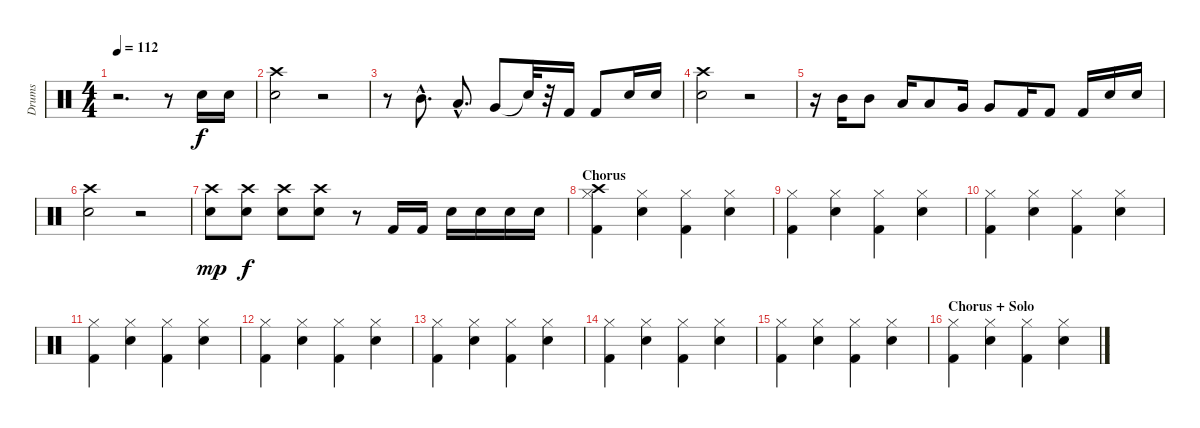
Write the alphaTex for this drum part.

\track ("Drums" "Drums") {instrument percussion}
\staff {score}
\articulation defaults
\ts (4 4)
\tempo 112
\clef neutral
\ks c
r.2{d dy f} r.8 "Electric Snare (hit)".16 "Electric Snare (hit)".16 |
("Crash high (hit)" "Electric Snare (hit)").2 r.2 |
r.8 "Mid Tom (hit)"{hac}.8{d} "Low Tom (hit)"{hac}.8{d} "Very Low Tom (hit)".8 "Snare (hit)"{t}.32 r.32 "Kick (hit) 2".16 "Kick (hit) 2".8 "Electric Snare (hit)".16 "Electric Snare (hit)".16 |
("Crash high (hit)" "Electric Snare (hit)").2 r.2 |
r.16 "Mid Tom (hit)".16 "Mid Tom (hit)".8 "Low Tom (hit)".16 "Low Tom (hit)".8 "Very Low Tom (hit)".16 "Very Low Tom (hit)".8 "Kick (hit) 2".16 "Kick (hit) 2".8 "Kick (hit) 2".16 "Electric Snare (hit)".16 "Electric Snare (hit)".16 |
("Crash high (hit)" "Electric Snare (hit)").2 r.2 |
("Electric Snare (hit)" "Crash high (hit)").8{dy mp} ("Electric Snare (hit)" "Crash high (hit)").8{dy f} ("Electric Snare (hit)" "Crash high (hit)").8 ("Electric Snare (hit)" "Crash high (hit)").8 r.8 "Kick (hit) 2".16 "Kick (hit) 2".16 "Electric Snare (hit)".16 "Electric Snare (hit)".16 "Electric Snare (hit)".16 "Electric Snare (hit)".16 |
\section ("" "Chorus")
("Kick (hit) 2" "Hi-Hat (closed)" "Crash high (hit)").4 ("Hi-Hat (closed)" "Electric Snare (hit)").4 ("Kick (hit) 2" "Hi-Hat (closed)").4 ("Hi-Hat (closed)" "Electric Snare (hit)").4 |
("Kick (hit) 2" "Hi-Hat (closed)").4 ("Hi-Hat (closed)" "Electric Snare (hit)").4 ("Kick (hit) 2" "Hi-Hat (closed)").4 ("Electric Snare (hit)" "Hi-Hat (closed)").4 |
("Kick (hit) 2" "Hi-Hat (closed)").4 ("Hi-Hat (closed)" "Electric Snare (hit)").4 ("Kick (hit) 2" "Hi-Hat (closed)").4 ("Hi-Hat (closed)" "Electric Snare (hit)").4 |
("Kick (hit) 2" "Hi-Hat (closed)").4 ("Hi-Hat (closed)" "Electric Snare (hit)").4 ("Kick (hit) 2" "Hi-Hat (closed)").4 ("Hi-Hat (closed)" "Electric Snare (hit)").4 |
("Kick (hit) 2" "Hi-Hat (closed)").4 ("Hi-Hat (closed)" "Electric Snare (hit)").4 ("Kick (hit) 2" "Hi-Hat (closed)").4 ("Hi-Hat (closed)" "Electric Snare (hit)").4 |
("Kick (hit) 2" "Hi-Hat (closed)").4 ("Hi-Hat (closed)" "Electric Snare (hit)").4 ("Kick (hit) 2" "Hi-Hat (closed)").4 ("Hi-Hat (closed)" "Electric Snare (hit)").4 |
("Kick (hit) 2" "Hi-Hat (closed)").4 ("Hi-Hat (closed)" "Electric Snare (hit)").4 ("Kick (hit) 2" "Hi-Hat (closed)").4 ("Hi-Hat (closed)" "Electric Snare (hit)").4 |
("Kick (hit) 2" "Hi-Hat (closed)").4 ("Hi-Hat (closed)" "Electric Snare (hit)").4 ("Kick (hit) 2" "Hi-Hat (closed)").4 ("Hi-Hat (closed)" "Electric Snare (hit)").4 |
\section ("" "Chorus + Solo")
("Kick (hit) 2" "Hi-Hat (closed)").4 ("Hi-Hat (closed)" "Electric Snare (hit)").4 ("Kick (hit) 2" "Hi-Hat (closed)").4 ("Hi-Hat (closed)" "Electric Snare (hit)").4
